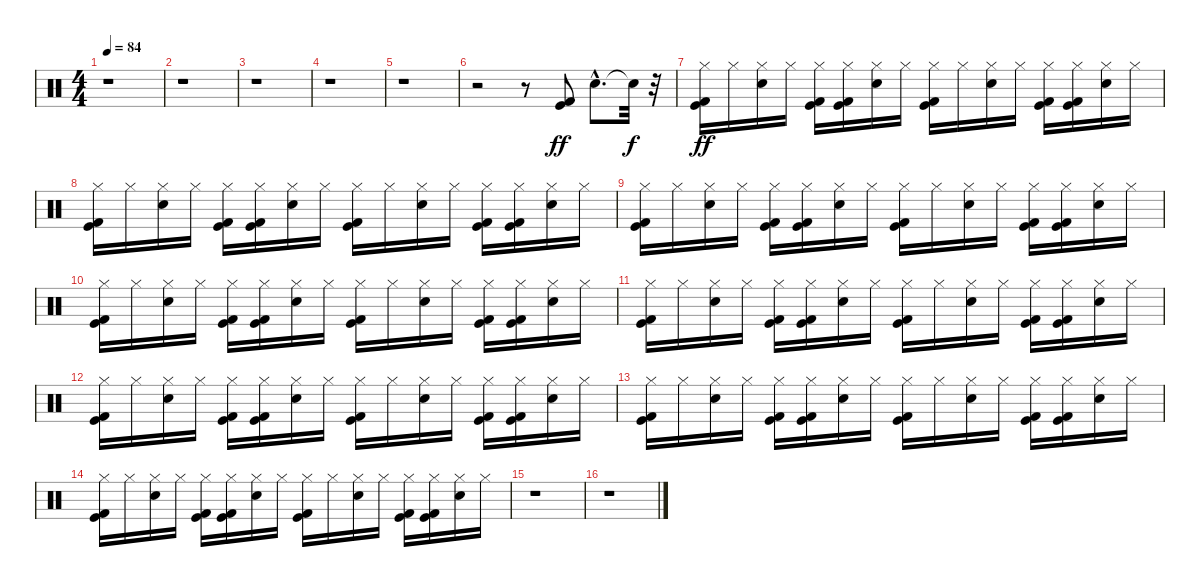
\track "" {instrument percussion}
\staff {score}
\articulation defaults
\ts (4 4)
\tempo 84
\clef neutral
\ks c
r.1{dy ff} |
r.1 |
r.1 |
r.1 |
r.1 |
r.2 r.8 ("Kick (hit)" "Kick (hit) 2").8 "Snare (hit) 2"{hac}.8{d} "Snare (hit)"{t}.32{dy f} r.32 |
("Kick (hit)" "Kick (hit) 2" "Hi-Hat (closed)").16{dy ff} "Hi-Hat (closed)".16 ("Snare (hit) 2" "Hi-Hat (closed)").16 "Hi-Hat (closed)".16 ("Kick (hit)" "Kick (hit) 2" "Hi-Hat (closed)").16 ("Kick (hit)" "Kick (hit) 2" "Hi-Hat (closed)").16 ("Snare (hit) 2" "Hi-Hat (closed)").16 "Hi-Hat (closed)".16 ("Kick (hit)" "Kick (hit) 2" "Hi-Hat (closed)").16 "Hi-Hat (closed)".16 ("Snare (hit) 2" "Hi-Hat (closed)").16 "Hi-Hat (closed)".16 ("Kick (hit)" "Kick (hit) 2" "Hi-Hat (closed)").16 ("Kick (hit)" "Kick (hit) 2" "Hi-Hat (closed)").16 ("Snare (hit) 2" "Hi-Hat (closed)").16 "Hi-Hat (closed)".16 |
("Kick (hit)" "Kick (hit) 2" "Hi-Hat (closed)").16 "Hi-Hat (closed)".16 ("Snare (hit) 2" "Hi-Hat (closed)").16 "Hi-Hat (closed)".16 ("Kick (hit)" "Kick (hit) 2" "Hi-Hat (closed)").16 ("Kick (hit)" "Kick (hit) 2" "Hi-Hat (closed)").16 ("Snare (hit) 2" "Hi-Hat (closed)").16 "Hi-Hat (closed)".16 ("Kick (hit)" "Kick (hit) 2" "Hi-Hat (closed)").16 "Hi-Hat (closed)".16 ("Snare (hit) 2" "Hi-Hat (closed)").16 "Hi-Hat (closed)".16 ("Kick (hit)" "Kick (hit) 2" "Hi-Hat (closed)").16 ("Kick (hit)" "Kick (hit) 2" "Hi-Hat (closed)").16 ("Snare (hit) 2" "Hi-Hat (closed)").16 "Hi-Hat (closed)".16 |
("Kick (hit)" "Kick (hit) 2" "Hi-Hat (closed)").16 "Hi-Hat (closed)".16 ("Snare (hit) 2" "Hi-Hat (closed)").16 "Hi-Hat (closed)".16 ("Kick (hit)" "Kick (hit) 2" "Hi-Hat (closed)").16 ("Kick (hit)" "Kick (hit) 2" "Hi-Hat (closed)").16 ("Snare (hit) 2" "Hi-Hat (closed)").16 "Hi-Hat (closed)".16 ("Kick (hit)" "Kick (hit) 2" "Hi-Hat (closed)").16 "Hi-Hat (closed)".16 ("Snare (hit) 2" "Hi-Hat (closed)").16 "Hi-Hat (closed)".16 ("Kick (hit)" "Kick (hit) 2" "Hi-Hat (closed)").16 ("Kick (hit)" "Kick (hit) 2" "Hi-Hat (closed)").16 ("Snare (hit) 2" "Hi-Hat (closed)").16 "Hi-Hat (closed)".16 |
("Kick (hit)" "Kick (hit) 2" "Hi-Hat (closed)").16 "Hi-Hat (closed)".16 ("Snare (hit) 2" "Hi-Hat (closed)").16 "Hi-Hat (closed)".16 ("Kick (hit)" "Kick (hit) 2" "Hi-Hat (closed)").16 ("Kick (hit)" "Kick (hit) 2" "Hi-Hat (closed)").16 ("Snare (hit) 2" "Hi-Hat (closed)").16 "Hi-Hat (closed)".16 ("Kick (hit)" "Kick (hit) 2" "Hi-Hat (closed)").16 "Hi-Hat (closed)".16 ("Snare (hit) 2" "Hi-Hat (closed)").16 "Hi-Hat (closed)".16 ("Kick (hit)" "Kick (hit) 2" "Hi-Hat (closed)").16 ("Kick (hit)" "Kick (hit) 2" "Hi-Hat (closed)").16 ("Snare (hit) 2" "Hi-Hat (closed)").16 "Hi-Hat (closed)".16 |
("Kick (hit)" "Kick (hit) 2" "Hi-Hat (closed)").16 "Hi-Hat (closed)".16 ("Snare (hit) 2" "Hi-Hat (closed)").16 "Hi-Hat (closed)".16 ("Kick (hit)" "Kick (hit) 2" "Hi-Hat (closed)").16 ("Kick (hit)" "Kick (hit) 2" "Hi-Hat (closed)").16 ("Snare (hit) 2" "Hi-Hat (closed)").16 "Hi-Hat (closed)".16 ("Kick (hit)" "Kick (hit) 2" "Hi-Hat (closed)").16 "Hi-Hat (closed)".16 ("Snare (hit) 2" "Hi-Hat (closed)").16 "Hi-Hat (closed)".16 ("Kick (hit)" "Kick (hit) 2" "Hi-Hat (closed)").16 ("Kick (hit)" "Kick (hit) 2" "Hi-Hat (closed)").16 ("Snare (hit) 2" "Hi-Hat (closed)").16 "Hi-Hat (closed)".16 |
("Kick (hit)" "Kick (hit) 2" "Hi-Hat (closed)").16 "Hi-Hat (closed)".16 ("Snare (hit) 2" "Hi-Hat (closed)").16 "Hi-Hat (closed)".16 ("Kick (hit)" "Kick (hit) 2" "Hi-Hat (closed)").16 ("Kick (hit)" "Kick (hit) 2" "Hi-Hat (closed)").16 ("Snare (hit) 2" "Hi-Hat (closed)").16 "Hi-Hat (closed)".16 ("Kick (hit)" "Kick (hit) 2" "Hi-Hat (closed)").16 "Hi-Hat (closed)".16 ("Snare (hit) 2" "Hi-Hat (closed)").16 "Hi-Hat (closed)".16 ("Kick (hit)" "Kick (hit) 2" "Hi-Hat (closed)").16 ("Kick (hit)" "Kick (hit) 2" "Hi-Hat (closed)").16 ("Snare (hit) 2" "Hi-Hat (closed)").16 "Hi-Hat (closed)".16 |
("Kick (hit)" "Kick (hit) 2" "Hi-Hat (closed)").16 "Hi-Hat (closed)".16 ("Snare (hit) 2" "Hi-Hat (closed)").16 "Hi-Hat (closed)".16 ("Kick (hit)" "Kick (hit) 2" "Hi-Hat (closed)").16 ("Kick (hit)" "Kick (hit) 2" "Hi-Hat (closed)").16 ("Snare (hit) 2" "Hi-Hat (closed)").16 "Hi-Hat (closed)".16 ("Kick (hit)" "Kick (hit) 2" "Hi-Hat (closed)").16 "Hi-Hat (closed)".16 ("Snare (hit) 2" "Hi-Hat (closed)").16 "Hi-Hat (closed)".16 ("Kick (hit)" "Kick (hit) 2" "Hi-Hat (closed)").16 ("Kick (hit)" "Kick (hit) 2" "Hi-Hat (closed)").16 ("Snare (hit) 2" "Hi-Hat (closed)").16 "Hi-Hat (closed)".16 |
("Kick (hit)" "Kick (hit) 2" "Hi-Hat (closed)").16 "Hi-Hat (closed)".16 ("Snare (hit) 2" "Hi-Hat (closed)").16 "Hi-Hat (closed)".16 ("Kick (hit)" "Kick (hit) 2" "Hi-Hat (closed)").16 ("Kick (hit)" "Kick (hit) 2" "Hi-Hat (closed)").16 ("Snare (hit) 2" "Hi-Hat (closed)").16 "Hi-Hat (closed)".16 ("Kick (hit)" "Kick (hit) 2" "Hi-Hat (closed)").16 "Hi-Hat (closed)".16 ("Snare (hit) 2" "Hi-Hat (closed)").16 "Hi-Hat (closed)".16 ("Kick (hit)" "Kick (hit) 2" "Hi-Hat (closed)").16 ("Kick (hit)" "Kick (hit) 2" "Hi-Hat (closed)").16 ("Snare (hit) 2" "Hi-Hat (closed)").16 "Hi-Hat (closed)".16 |
r.1 |
r.1
